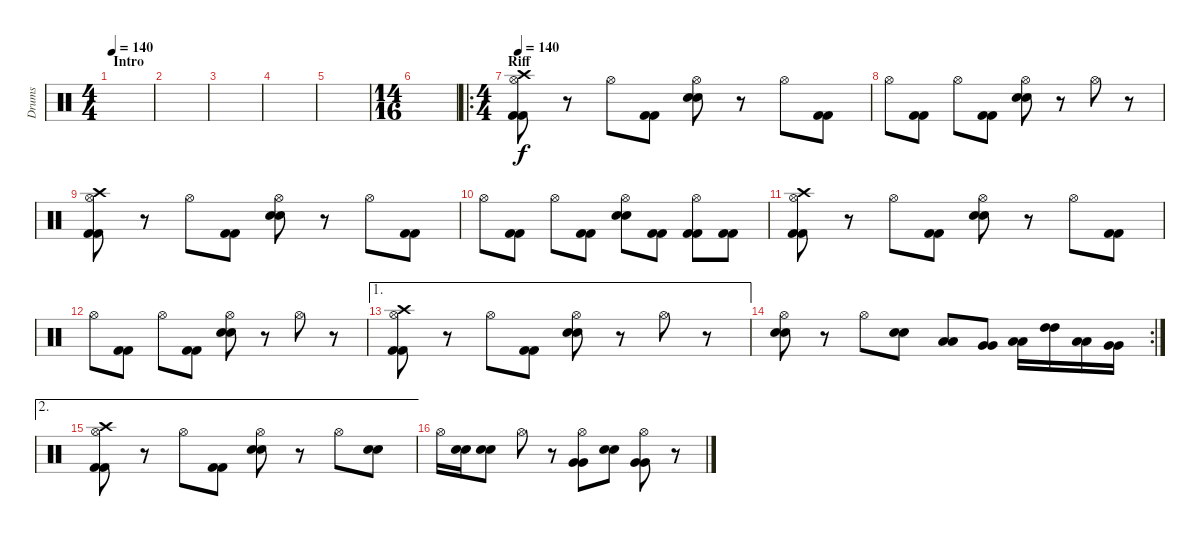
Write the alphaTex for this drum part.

\track ("Drums" "Drums") {instrument percussion}
\staff {score}
\articulation defaults
\ts (4 4)
\section ("" "Intro")
\tempo 140
\clef neutral
\ks c
|
|
|
|
|
\ts (14 16)
|
\ro
\ts (4 4)
\section ("" "Riff")
\tempo 140
("Crash high (hit)" "Hi-Hat (open)" "Kick (hit) 2" "Kick (hit) 2").8 r.8 "Hi-Hat (open)".8 ("Kick (hit) 2" "Kick (hit) 2").8 ("Hi-Hat (open)" "Electric Snare (hit)" "Electric Snare (hit)").8 r.8 "Hi-Hat (open)".8 ("Kick (hit) 2" "Kick (hit) 2").8 |
"Hi-Hat (open)".8 ("Kick (hit) 2" "Kick (hit) 2").8 "Hi-Hat (open)".8 ("Kick (hit) 2" "Kick (hit) 2").8 ("Hi-Hat (open)" "Electric Snare (hit)" "Electric Snare (hit)").8 r.8 "Hi-Hat (open)".8 r.8 |
("Crash high (hit)" "Hi-Hat (open)" "Kick (hit) 2" "Kick (hit) 2").8 r.8 "Hi-Hat (open)".8 ("Kick (hit) 2" "Kick (hit) 2").8 ("Hi-Hat (open)" "Electric Snare (hit)" "Electric Snare (hit)").8 r.8 "Hi-Hat (open)".8 ("Kick (hit) 2" "Kick (hit) 2").8 |
"Hi-Hat (open)".8 ("Kick (hit) 2" "Kick (hit) 2").8 "Hi-Hat (open)".8 ("Kick (hit) 2" "Kick (hit) 2").8 ("Hi-Hat (open)" "Electric Snare (hit)" "Electric Snare (hit)").8 ("Kick (hit) 2" "Kick (hit) 2").8 ("Hi-Hat (open)" "Kick (hit) 2" "Kick (hit) 2").8 ("Kick (hit) 2" "Kick (hit) 2").8 |
("Crash high (hit)" "Hi-Hat (open)" "Kick (hit) 2" "Kick (hit) 2").8 r.8 "Hi-Hat (open)".8 ("Kick (hit) 2" "Kick (hit) 2").8 ("Hi-Hat (open)" "Electric Snare (hit)" "Electric Snare (hit)").8 r.8 "Hi-Hat (open)".8 ("Kick (hit) 2" "Kick (hit) 2").8 |
"Hi-Hat (open)".8 ("Kick (hit) 2" "Kick (hit) 2").8 "Hi-Hat (open)".8 ("Kick (hit) 2" "Kick (hit) 2").8 ("Hi-Hat (open)" "Electric Snare (hit)" "Electric Snare (hit)").8 r.8 "Hi-Hat (open)".8 r.8 |
\ae 1
("Crash high (hit)" "Hi-Hat (open)" "Kick (hit) 2" "Kick (hit) 2").8 r.8 "Hi-Hat (open)".8 ("Kick (hit) 2" "Kick (hit) 2").8 ("Hi-Hat (open)" "Electric Snare (hit)" "Electric Snare (hit)").8 r.8 "Hi-Hat (open)".8 r.8 |
\rc 2
("Hi-Hat (open)" "Electric Snare (hit)" "Electric Snare (hit)").8 r.8 "Hi-Hat (open)".8 ("Electric Snare (hit)" "Electric Snare (hit)").8 ("Low Tom (hit)" "Low Tom (hit)").8 ("Very Low Tom (hit)" "Very Low Tom (hit)").8 ("Low Tom (hit)" "Low Tom (hit)").16 ("High Tom (hit)" "High Tom (hit)").16 ("Low Tom (hit)" "Low Tom (hit)").16 ("Very Low Tom (hit)" "Very Low Tom (hit)").16 |
\ae 2
("Crash high (hit)" "Hi-Hat (open)" "Kick (hit) 2" "Kick (hit) 2").8 r.8 "Hi-Hat (open)".8 ("Kick (hit) 2" "Kick (hit) 2").8 ("Hi-Hat (open)" "Electric Snare (hit)" "Electric Snare (hit)").8 r.8 "Hi-Hat (open)".8 ("Electric Snare (hit)" "Electric Snare (hit)").8 |
"Hi-Hat (open)".16 ("Electric Snare (hit)" "Electric Snare (hit)").16 ("Electric Snare (hit)" "Electric Snare (hit)").8 "Hi-Hat (open)".8 r.8 ("Hi-Hat (open)" "Very Low Tom (hit)" "Very Low Tom (hit)").8 ("Electric Snare (hit)" "Electric Snare (hit)").8 ("Hi-Hat (open)" "Very Low Tom (hit)" "Very Low Tom (hit)").8 r.8
